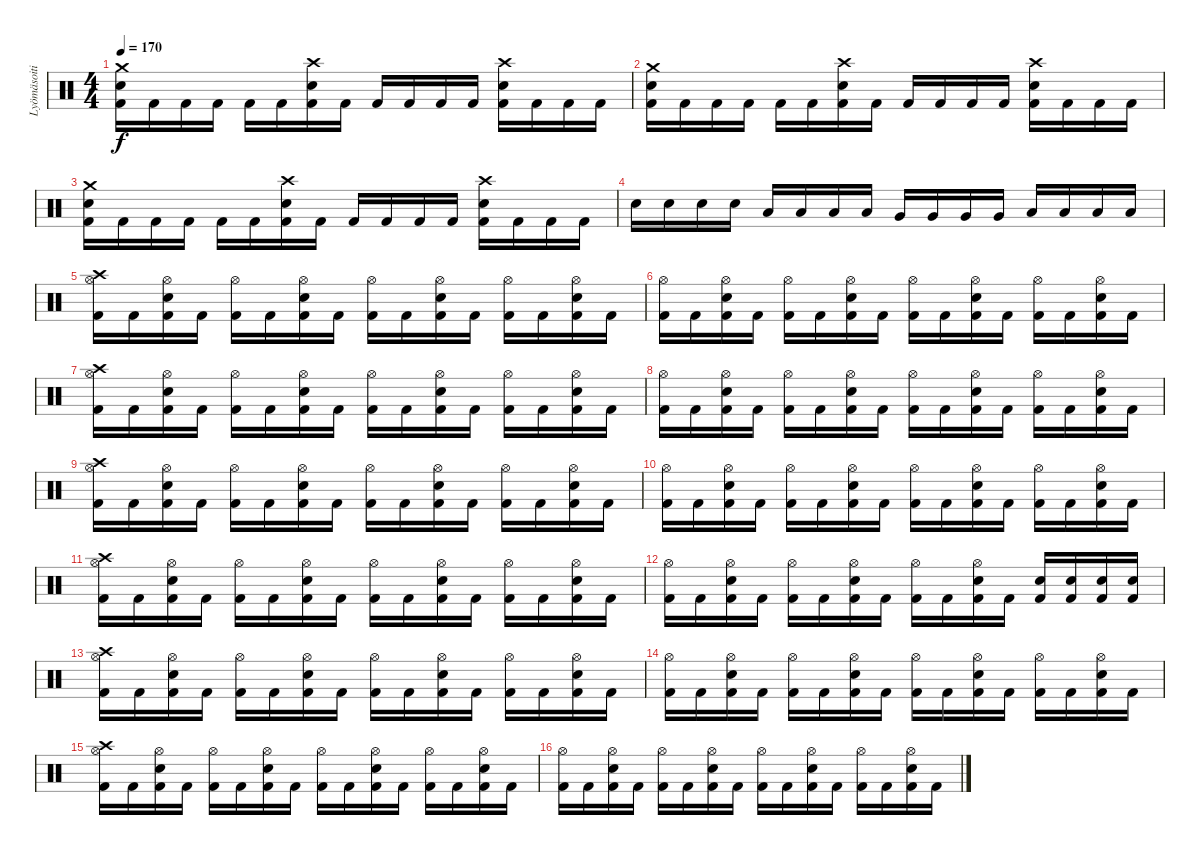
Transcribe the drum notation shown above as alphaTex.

\track ("Lyömäsoitin" "Lyömäsoiti") {instrument percussion}
\staff {score}
\articulation defaults
\ts (4 4)
\tempo 170
\clef neutral
\ks c
("Kick (hit) 2" "Snare (hit) 2" "Crash medium (hit)").16{dy f} "Kick (hit) 2".16 "Kick (hit) 2".16 "Kick (hit) 2".16 "Kick (hit) 2".16 "Kick (hit) 2".16 ("Kick (hit) 2" "Snare (hit) 2" "Crash high (hit)").16 "Kick (hit) 2".16 "Kick (hit) 2".16 "Kick (hit) 2".16 "Kick (hit) 2".16 "Kick (hit) 2".16 ("Kick (hit) 2" "Snare (hit) 2" "Crash high (hit)").16 "Kick (hit) 2".16 "Kick (hit) 2".16 "Kick (hit) 2".16 |
("Kick (hit) 2" "Snare (hit) 2" "Crash medium (hit)").16 "Kick (hit) 2".16 "Kick (hit) 2".16 "Kick (hit) 2".16 "Kick (hit) 2".16 "Kick (hit) 2".16 ("Kick (hit) 2" "Snare (hit) 2" "Crash high (hit)").16 "Kick (hit) 2".16 "Kick (hit) 2".16 "Kick (hit) 2".16 "Kick (hit) 2".16 "Kick (hit) 2".16 ("Kick (hit) 2" "Snare (hit) 2" "Crash high (hit)").16 "Kick (hit) 2".16 "Kick (hit) 2".16 "Kick (hit) 2".16 |
("Kick (hit) 2" "Snare (hit) 2" "Crash medium (hit)").16 "Kick (hit) 2".16 "Kick (hit) 2".16 "Kick (hit) 2".16 "Kick (hit) 2".16 "Kick (hit) 2".16 ("Kick (hit) 2" "Snare (hit) 2" "Crash high (hit)").16 "Kick (hit) 2".16 "Kick (hit) 2".16 "Kick (hit) 2".16 "Kick (hit) 2".16 "Kick (hit) 2".16 ("Kick (hit) 2" "Snare (hit) 2" "Crash high (hit)").16 "Kick (hit) 2".16 "Kick (hit) 2".16 "Kick (hit) 2".16 |
"Snare (hit) 2".16 "Snare (hit) 2".16 "Snare (hit) 2".16 "Snare (hit) 2".16 "Low Tom (hit)".16 "Low Tom (hit)".16 "Low Tom (hit)".16 "Low Tom (hit)".16 "Very Low Tom (hit)".16 "Very Low Tom (hit)".16 "Very Low Tom (hit)".16 "Very Low Tom (hit)".16 "Low Floor Tom (hit)".16 "Low Floor Tom (hit)".16 "Low Floor Tom (hit)".16 "Low Floor Tom (hit)".16 |
("Kick (hit) 2" "Crash high (hit)" "Hi-Hat (open)").16 "Kick (hit) 2".16 ("Kick (hit) 2" "Snare (hit) 2" "Hi-Hat (open)").16 "Kick (hit) 2".16 ("Kick (hit) 2" "Hi-Hat (open)").16 "Kick (hit) 2".16 ("Kick (hit) 2" "Snare (hit) 2" "Hi-Hat (open)").16 "Kick (hit) 2".16 ("Kick (hit) 2" "Hi-Hat (open)").16 "Kick (hit) 2".16 ("Kick (hit) 2" "Snare (hit) 2" "Hi-Hat (open)").16 "Kick (hit) 2".16 ("Kick (hit) 2" "Hi-Hat (open)").16 "Kick (hit) 2".16 ("Kick (hit) 2" "Snare (hit) 2" "Hi-Hat (open)").16 "Kick (hit) 2".16 |
("Kick (hit) 2" "Hi-Hat (open)").16 "Kick (hit) 2".16 ("Kick (hit) 2" "Snare (hit) 2" "Hi-Hat (open)").16 "Kick (hit) 2".16 ("Kick (hit) 2" "Hi-Hat (open)").16 "Kick (hit) 2".16 ("Kick (hit) 2" "Snare (hit) 2" "Hi-Hat (open)").16 "Kick (hit) 2".16 ("Kick (hit) 2" "Hi-Hat (open)").16 "Kick (hit) 2".16 ("Kick (hit) 2" "Snare (hit) 2" "Hi-Hat (open)").16 "Kick (hit) 2".16 ("Kick (hit) 2" "Hi-Hat (open)").16 "Kick (hit) 2".16 ("Kick (hit) 2" "Snare (hit) 2" "Hi-Hat (open)").16 "Kick (hit) 2".16 |
("Kick (hit) 2" "Crash high (hit)" "Hi-Hat (open)").16 "Kick (hit) 2".16 ("Kick (hit) 2" "Snare (hit) 2" "Hi-Hat (open)").16 "Kick (hit) 2".16 ("Kick (hit) 2" "Hi-Hat (open)").16 "Kick (hit) 2".16 ("Kick (hit) 2" "Snare (hit) 2" "Hi-Hat (open)").16 "Kick (hit) 2".16 ("Kick (hit) 2" "Hi-Hat (open)").16 "Kick (hit) 2".16 ("Kick (hit) 2" "Snare (hit) 2" "Hi-Hat (open)").16 "Kick (hit) 2".16 ("Kick (hit) 2" "Hi-Hat (open)").16 "Kick (hit) 2".16 ("Kick (hit) 2" "Snare (hit) 2" "Hi-Hat (open)").16 "Kick (hit) 2".16 |
("Kick (hit) 2" "Hi-Hat (open)").16 "Kick (hit) 2".16 ("Kick (hit) 2" "Snare (hit) 2" "Hi-Hat (open)").16 "Kick (hit) 2".16 ("Kick (hit) 2" "Hi-Hat (open)").16 "Kick (hit) 2".16 ("Kick (hit) 2" "Snare (hit) 2" "Hi-Hat (open)").16 "Kick (hit) 2".16 ("Kick (hit) 2" "Hi-Hat (open)").16 "Kick (hit) 2".16 ("Kick (hit) 2" "Snare (hit) 2" "Hi-Hat (open)").16 "Kick (hit) 2".16 ("Kick (hit) 2" "Hi-Hat (open)").16 "Kick (hit) 2".16 ("Kick (hit) 2" "Snare (hit) 2" "Hi-Hat (open)").16 "Kick (hit) 2".16 |
("Kick (hit) 2" "Crash high (hit)" "Hi-Hat (open)").16 "Kick (hit) 2".16 ("Kick (hit) 2" "Snare (hit) 2" "Hi-Hat (open)").16 "Kick (hit) 2".16 ("Kick (hit) 2" "Hi-Hat (open)").16 "Kick (hit) 2".16 ("Kick (hit) 2" "Snare (hit) 2" "Hi-Hat (open)").16 "Kick (hit) 2".16 ("Kick (hit) 2" "Hi-Hat (open)").16 "Kick (hit) 2".16 ("Kick (hit) 2" "Snare (hit) 2" "Hi-Hat (open)").16 "Kick (hit) 2".16 ("Kick (hit) 2" "Hi-Hat (open)").16 "Kick (hit) 2".16 ("Kick (hit) 2" "Snare (hit) 2" "Hi-Hat (open)").16 "Kick (hit) 2".16 |
("Kick (hit) 2" "Hi-Hat (open)").16 "Kick (hit) 2".16 ("Kick (hit) 2" "Snare (hit) 2" "Hi-Hat (open)").16 "Kick (hit) 2".16 ("Kick (hit) 2" "Hi-Hat (open)").16 "Kick (hit) 2".16 ("Kick (hit) 2" "Snare (hit) 2" "Hi-Hat (open)").16 "Kick (hit) 2".16 ("Kick (hit) 2" "Hi-Hat (open)").16 "Kick (hit) 2".16 ("Kick (hit) 2" "Snare (hit) 2" "Hi-Hat (open)").16 "Kick (hit) 2".16 ("Kick (hit) 2" "Hi-Hat (open)").16 "Kick (hit) 2".16 ("Kick (hit) 2" "Snare (hit) 2" "Hi-Hat (open)").16 "Kick (hit) 2".16 |
("Kick (hit) 2" "Crash high (hit)" "Hi-Hat (open)").16 "Kick (hit) 2".16 ("Kick (hit) 2" "Snare (hit) 2" "Hi-Hat (open)").16 "Kick (hit) 2".16 ("Kick (hit) 2" "Hi-Hat (open)").16 "Kick (hit) 2".16 ("Kick (hit) 2" "Snare (hit) 2" "Hi-Hat (open)").16 "Kick (hit) 2".16 ("Kick (hit) 2" "Hi-Hat (open)").16 "Kick (hit) 2".16 ("Kick (hit) 2" "Snare (hit) 2" "Hi-Hat (open)").16 "Kick (hit) 2".16 ("Kick (hit) 2" "Hi-Hat (open)").16 "Kick (hit) 2".16 ("Kick (hit) 2" "Snare (hit) 2" "Hi-Hat (open)").16 "Kick (hit) 2".16 |
("Kick (hit) 2" "Hi-Hat (open)").16 "Kick (hit) 2".16 ("Kick (hit) 2" "Snare (hit) 2" "Hi-Hat (open)").16 "Kick (hit) 2".16 ("Kick (hit) 2" "Hi-Hat (open)").16 "Kick (hit) 2".16 ("Kick (hit) 2" "Snare (hit) 2" "Hi-Hat (open)").16 "Kick (hit) 2".16 ("Kick (hit) 2" "Hi-Hat (open)").16 "Kick (hit) 2".16 ("Kick (hit) 2" "Snare (hit) 2" "Hi-Hat (open)").16 "Kick (hit) 2".16 ("Kick (hit) 2" "Snare (hit) 2").16 ("Kick (hit) 2" "Snare (hit) 2").16 ("Kick (hit) 2" "Snare (hit) 2").16 ("Kick (hit) 2" "Snare (hit) 2").16 |
("Kick (hit) 2" "Crash high (hit)" "Hi-Hat (open)").16 "Kick (hit) 2".16 ("Kick (hit) 2" "Snare (hit) 2" "Hi-Hat (open)").16 "Kick (hit) 2".16 ("Kick (hit) 2" "Hi-Hat (open)").16 "Kick (hit) 2".16 ("Kick (hit) 2" "Snare (hit) 2" "Hi-Hat (open)").16 "Kick (hit) 2".16 ("Kick (hit) 2" "Hi-Hat (open)").16 "Kick (hit) 2".16 ("Kick (hit) 2" "Snare (hit) 2" "Hi-Hat (open)").16 "Kick (hit) 2".16 ("Kick (hit) 2" "Hi-Hat (open)").16 "Kick (hit) 2".16 ("Kick (hit) 2" "Snare (hit) 2" "Hi-Hat (open)").16 "Kick (hit) 2".16 |
("Kick (hit) 2" "Hi-Hat (open)").16 "Kick (hit) 2".16 ("Kick (hit) 2" "Snare (hit) 2" "Hi-Hat (open)").16 "Kick (hit) 2".16 ("Kick (hit) 2" "Hi-Hat (open)").16 "Kick (hit) 2".16 ("Kick (hit) 2" "Snare (hit) 2" "Hi-Hat (open)").16 "Kick (hit) 2".16 ("Kick (hit) 2" "Hi-Hat (open)").16 "Kick (hit) 2".16 ("Kick (hit) 2" "Snare (hit) 2" "Hi-Hat (open)").16 "Kick (hit) 2".16 ("Kick (hit) 2" "Hi-Hat (open)").16 "Kick (hit) 2".16 ("Kick (hit) 2" "Snare (hit) 2" "Hi-Hat (open)").16 "Kick (hit) 2".16 |
("Kick (hit) 2" "Crash high (hit)" "Hi-Hat (open)").16 "Kick (hit) 2".16 ("Kick (hit) 2" "Snare (hit) 2" "Hi-Hat (open)").16 "Kick (hit) 2".16 ("Kick (hit) 2" "Hi-Hat (open)").16 "Kick (hit) 2".16 ("Kick (hit) 2" "Snare (hit) 2" "Hi-Hat (open)").16 "Kick (hit) 2".16 ("Kick (hit) 2" "Hi-Hat (open)").16 "Kick (hit) 2".16 ("Kick (hit) 2" "Snare (hit) 2" "Hi-Hat (open)").16 "Kick (hit) 2".16 ("Kick (hit) 2" "Hi-Hat (open)").16 "Kick (hit) 2".16 ("Kick (hit) 2" "Snare (hit) 2" "Hi-Hat (open)").16 "Kick (hit) 2".16 |
("Kick (hit) 2" "Hi-Hat (open)").16 "Kick (hit) 2".16 ("Kick (hit) 2" "Snare (hit) 2" "Hi-Hat (open)").16 "Kick (hit) 2".16 ("Kick (hit) 2" "Hi-Hat (open)").16 "Kick (hit) 2".16 ("Kick (hit) 2" "Snare (hit) 2" "Hi-Hat (open)").16 "Kick (hit) 2".16 ("Kick (hit) 2" "Hi-Hat (open)").16 "Kick (hit) 2".16 ("Kick (hit) 2" "Snare (hit) 2" "Hi-Hat (open)").16 "Kick (hit) 2".16 ("Kick (hit) 2" "Hi-Hat (open)").16 "Kick (hit) 2".16 ("Kick (hit) 2" "Snare (hit) 2" "Hi-Hat (open)").16 "Kick (hit) 2".16
